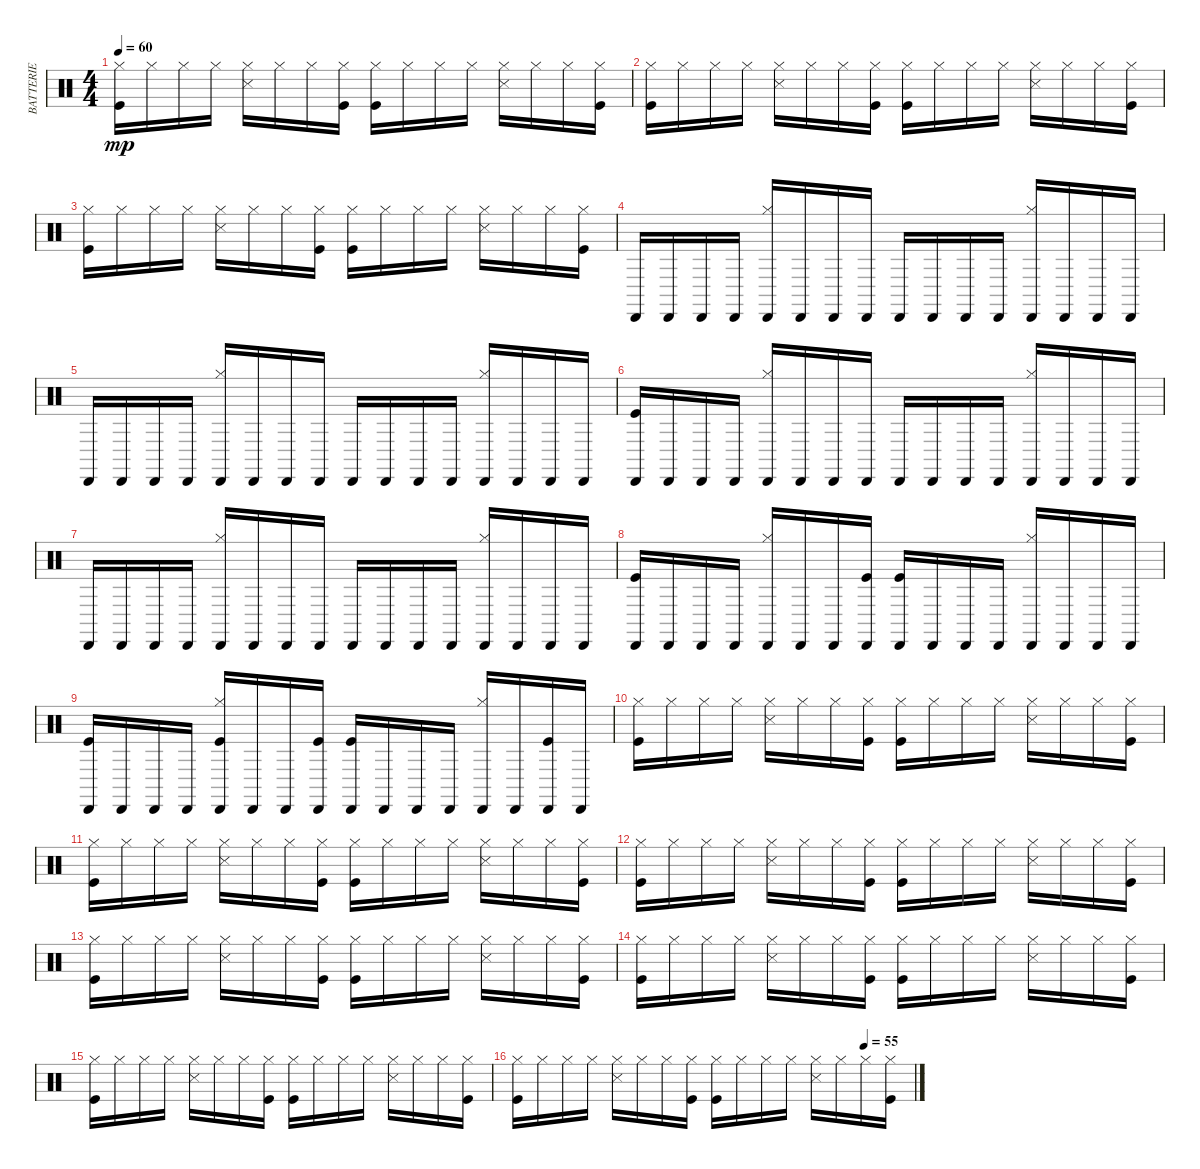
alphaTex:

\track ("BATTERIE" "BATTERIE") {instrument percussion}
\staff {score}
\articulation defaults
\ts (4 4)
\tempo 60
\clef neutral
\ks c
("Hi-Hat (closed)" "Kick (hit)").16{dy mp} "Hi-Hat (closed)".16 "Hi-Hat (closed)".16 "Hi-Hat (closed)".16 ("Hi-Hat (closed)" "Snare (side stick) 3").16 "Hi-Hat (closed)".16 "Hi-Hat (closed)".16 ("Hi-Hat (closed)" "Kick (hit)").16 ("Hi-Hat (closed)" "Kick (hit)").16 "Hi-Hat (closed)".16 "Hi-Hat (closed)".16 "Hi-Hat (closed)".16 ("Hi-Hat (closed)" "Snare (side stick) 3").16 "Hi-Hat (closed)".16 "Hi-Hat (closed)".16 ("Hi-Hat (closed)" "Kick (hit)").16 |
("Hi-Hat (closed)" "Kick (hit)").16 "Hi-Hat (closed)".16 "Hi-Hat (closed)".16 "Hi-Hat (closed)".16 ("Hi-Hat (closed)" "Snare (side stick) 3").16 "Hi-Hat (closed)".16 "Hi-Hat (closed)".16 ("Hi-Hat (closed)" "Kick (hit)").16 ("Hi-Hat (closed)" "Kick (hit)").16 "Hi-Hat (closed)".16 "Hi-Hat (closed)".16 "Hi-Hat (closed)".16 ("Hi-Hat (closed)" "Snare (side stick) 3").16 "Hi-Hat (closed)".16 "Hi-Hat (closed)".16 ("Hi-Hat (closed)" "Kick (hit)").16 |
("Hi-Hat (closed)" "Kick (hit)").16 "Hi-Hat (closed)".16 "Hi-Hat (closed)".16 "Hi-Hat (closed)".16 ("Hi-Hat (closed)" "Snare (side stick) 3").16 "Hi-Hat (closed)".16 "Hi-Hat (closed)".16 ("Hi-Hat (closed)" "Kick (hit)").16 ("Hi-Hat (closed)" "Kick (hit)").16 "Hi-Hat (closed)".16 "Hi-Hat (closed)".16 "Hi-Hat (closed)".16 ("Hi-Hat (closed)" "Snare (side stick) 3").16 "Hi-Hat (closed)".16 "Hi-Hat (closed)".16 ("Hi-Hat (closed)" "Kick (hit)").16 |
"Cabasa (hit)".16 "Cabasa (hit)".16 "Cabasa (hit)".16 "Cabasa (hit)".16 ("Hi-Hat (closed)" "Cabasa (hit)").16 "Cabasa (hit)".16 "Cabasa (hit)".16 "Cabasa (hit)".16 "Cabasa (hit)".16 "Cabasa (hit)".16 "Cabasa (hit)".16 "Cabasa (hit)".16 ("Hi-Hat (closed)" "Cabasa (hit)").16 "Cabasa (hit)".16 "Cabasa (hit)".16 "Cabasa (hit)".16 |
"Cabasa (hit)".16 "Cabasa (hit)".16 "Cabasa (hit)".16 "Cabasa (hit)".16 ("Hi-Hat (closed)" "Cabasa (hit)").16 "Cabasa (hit)".16 "Cabasa (hit)".16 "Cabasa (hit)".16 "Cabasa (hit)".16 "Cabasa (hit)".16 "Cabasa (hit)".16 "Cabasa (hit)".16 ("Hi-Hat (closed)" "Cabasa (hit)").16 "Cabasa (hit)".16 "Cabasa (hit)".16 "Cabasa (hit)".16 |
("Cabasa (hit)" "Kick (hit)").16 "Cabasa (hit)".16 "Cabasa (hit)".16 "Cabasa (hit)".16 ("Hi-Hat (closed)" "Cabasa (hit)").16 "Cabasa (hit)".16 "Cabasa (hit)".16 "Cabasa (hit)".16 "Cabasa (hit)".16 "Cabasa (hit)".16 "Cabasa (hit)".16 "Cabasa (hit)".16 ("Hi-Hat (closed)" "Cabasa (hit)").16 "Cabasa (hit)".16 "Cabasa (hit)".16 "Cabasa (hit)".16 |
"Cabasa (hit)".16 "Cabasa (hit)".16 "Cabasa (hit)".16 "Cabasa (hit)".16 ("Hi-Hat (closed)" "Cabasa (hit)").16 "Cabasa (hit)".16 "Cabasa (hit)".16 "Cabasa (hit)".16 "Cabasa (hit)".16 "Cabasa (hit)".16 "Cabasa (hit)".16 "Cabasa (hit)".16 ("Hi-Hat (closed)" "Cabasa (hit)").16 "Cabasa (hit)".16 "Cabasa (hit)".16 "Cabasa (hit)".16 |
("Cabasa (hit)" "Kick (hit)").16 "Cabasa (hit)".16 "Cabasa (hit)".16 "Cabasa (hit)".16 ("Hi-Hat (closed)" "Cabasa (hit)").16 "Cabasa (hit)".16 "Cabasa (hit)".16 ("Cabasa (hit)" "Kick (hit)").16 ("Cabasa (hit)" "Kick (hit)").16 "Cabasa (hit)".16 "Cabasa (hit)".16 "Cabasa (hit)".16 ("Hi-Hat (closed)" "Cabasa (hit)").16 "Cabasa (hit)".16 "Cabasa (hit)".16 "Cabasa (hit)".16 |
("Cabasa (hit)" "Kick (hit)").16 "Cabasa (hit)".16 "Cabasa (hit)".16 "Cabasa (hit)".16 ("Hi-Hat (closed)" "Cabasa (hit)" "Kick (hit)").16 "Cabasa (hit)".16 "Cabasa (hit)".16 ("Cabasa (hit)" "Kick (hit)").16 ("Cabasa (hit)" "Kick (hit)").16 "Cabasa (hit)".16 "Cabasa (hit)".16 "Cabasa (hit)".16 ("Hi-Hat (closed)" "Cabasa (hit)").16 "Cabasa (hit)".16 ("Cabasa (hit)" "Kick (hit)").16 "Cabasa (hit)".16 |
("Hi-Hat (closed)" "Kick (hit)").16 "Hi-Hat (closed)".16 "Hi-Hat (closed)".16 "Hi-Hat (closed)".16 ("Hi-Hat (closed)" "Snare (side stick) 3").16 "Hi-Hat (closed)".16 "Hi-Hat (closed)".16 ("Hi-Hat (closed)" "Kick (hit)").16 ("Hi-Hat (closed)" "Kick (hit)").16 "Hi-Hat (closed)".16 "Hi-Hat (closed)".16 "Hi-Hat (closed)".16 ("Hi-Hat (closed)" "Snare (side stick) 3").16 "Hi-Hat (closed)".16 "Hi-Hat (closed)".16 ("Hi-Hat (closed)" "Kick (hit)").16 |
("Hi-Hat (closed)" "Kick (hit)").16 "Hi-Hat (closed)".16 "Hi-Hat (closed)".16 "Hi-Hat (closed)".16 ("Hi-Hat (closed)" "Snare (side stick) 3").16 "Hi-Hat (closed)".16 "Hi-Hat (closed)".16 ("Hi-Hat (closed)" "Kick (hit)").16 ("Hi-Hat (closed)" "Kick (hit)").16 "Hi-Hat (closed)".16 "Hi-Hat (closed)".16 "Hi-Hat (closed)".16 ("Hi-Hat (closed)" "Snare (side stick) 3").16 "Hi-Hat (closed)".16 "Hi-Hat (closed)".16 ("Hi-Hat (closed)" "Kick (hit)").16 |
("Hi-Hat (closed)" "Kick (hit)").16 "Hi-Hat (closed)".16 "Hi-Hat (closed)".16 "Hi-Hat (closed)".16 ("Hi-Hat (closed)" "Snare (side stick) 3").16 "Hi-Hat (closed)".16 "Hi-Hat (closed)".16 ("Hi-Hat (closed)" "Kick (hit)").16 ("Hi-Hat (closed)" "Kick (hit)").16 "Hi-Hat (closed)".16 "Hi-Hat (closed)".16 "Hi-Hat (closed)".16 ("Hi-Hat (closed)" "Snare (side stick) 3").16 "Hi-Hat (closed)".16 "Hi-Hat (closed)".16 ("Hi-Hat (closed)" "Kick (hit)").16 |
("Hi-Hat (closed)" "Kick (hit)").16 "Hi-Hat (closed)".16 "Hi-Hat (closed)".16 "Hi-Hat (closed)".16 ("Hi-Hat (closed)" "Snare (side stick) 3").16 "Hi-Hat (closed)".16 "Hi-Hat (closed)".16 ("Hi-Hat (closed)" "Kick (hit)").16 ("Hi-Hat (closed)" "Kick (hit)").16 "Hi-Hat (closed)".16 "Hi-Hat (closed)".16 "Hi-Hat (closed)".16 ("Hi-Hat (closed)" "Snare (side stick) 3").16 "Hi-Hat (closed)".16 "Hi-Hat (closed)".16 ("Hi-Hat (closed)" "Kick (hit)").16 |
("Hi-Hat (closed)" "Kick (hit)").16 "Hi-Hat (closed)".16 "Hi-Hat (closed)".16 "Hi-Hat (closed)".16 ("Hi-Hat (closed)" "Snare (side stick) 3").16 "Hi-Hat (closed)".16 "Hi-Hat (closed)".16 ("Hi-Hat (closed)" "Kick (hit)").16 ("Hi-Hat (closed)" "Kick (hit)").16 "Hi-Hat (closed)".16 "Hi-Hat (closed)".16 "Hi-Hat (closed)".16 ("Hi-Hat (closed)" "Snare (side stick) 3").16 "Hi-Hat (closed)".16 "Hi-Hat (closed)".16 ("Hi-Hat (closed)" "Kick (hit)").16 |
("Hi-Hat (closed)" "Kick (hit)").16 "Hi-Hat (closed)".16 "Hi-Hat (closed)".16 "Hi-Hat (closed)".16 ("Hi-Hat (closed)" "Snare (side stick) 3").16 "Hi-Hat (closed)".16 "Hi-Hat (closed)".16 ("Hi-Hat (closed)" "Kick (hit)").16 ("Hi-Hat (closed)" "Kick (hit)").16 "Hi-Hat (closed)".16 "Hi-Hat (closed)".16 "Hi-Hat (closed)".16 ("Hi-Hat (closed)" "Snare (side stick) 3").16 "Hi-Hat (closed)".16 "Hi-Hat (closed)".16 ("Hi-Hat (closed)" "Kick (hit)").16 |
\tempo (55 0.875)
("Hi-Hat (closed)" "Kick (hit)").16 "Hi-Hat (closed)".16 "Hi-Hat (closed)".16 "Hi-Hat (closed)".16 ("Hi-Hat (closed)" "Snare (side stick) 3").16 "Hi-Hat (closed)".16 "Hi-Hat (closed)".16 ("Hi-Hat (closed)" "Kick (hit)").16 ("Hi-Hat (closed)" "Kick (hit)").16 "Hi-Hat (closed)".16 "Hi-Hat (closed)".16 "Hi-Hat (closed)".16 ("Hi-Hat (closed)" "Snare (side stick) 3").16 "Hi-Hat (closed)".16 "Hi-Hat (closed)".16 ("Hi-Hat (closed)" "Kick (hit)").16
